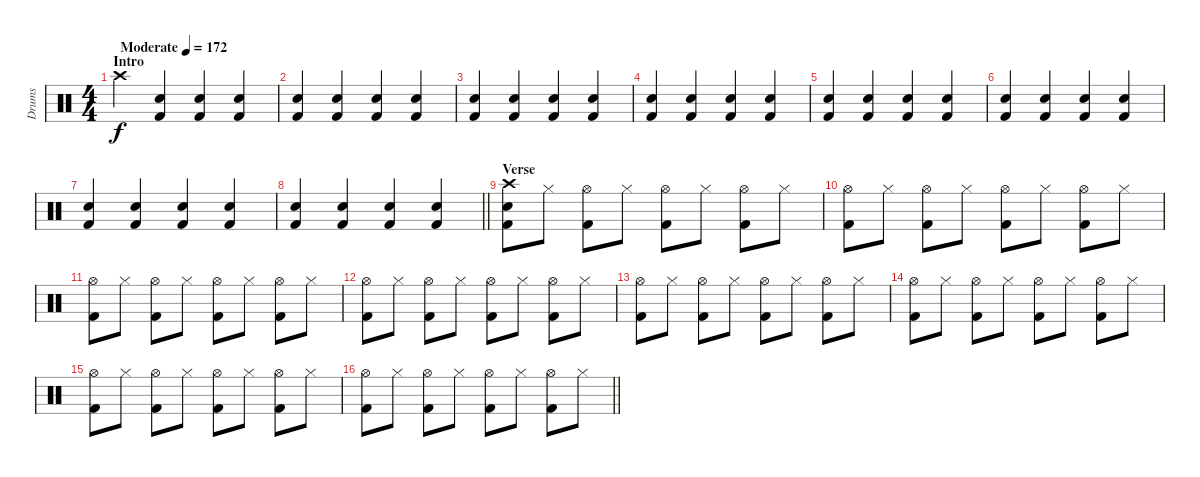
\track ("Drums" "Drums") {instrument percussion}
\staff {score}
\articulation defaults
\ts (4 4)
\section ("" "Intro")
\tempo (172 "Moderate")
\clef neutral
\ks c "Crash high (hit)".4{dy f}
("Electric Snare (hit)" "Kick (hit) 2").4 ("Electric Snare (hit)" "Kick (hit) 2").4 ("Electric Snare (hit)" "Kick (hit) 2").4 |
("Electric Snare (hit)" "Kick (hit) 2").4 ("Electric Snare (hit)" "Kick (hit) 2").4 ("Electric Snare (hit)" "Kick (hit) 2").4 ("Electric Snare (hit)" "Kick (hit) 2").4 |
("Electric Snare (hit)" "Kick (hit) 2").4 ("Electric Snare (hit)" "Kick (hit) 2").4 ("Electric Snare (hit)" "Kick (hit) 2").4 ("Electric Snare (hit)" "Kick (hit) 2").4 |
("Electric Snare (hit)" "Kick (hit) 2").4 ("Electric Snare (hit)" "Kick (hit) 2").4 ("Electric Snare (hit)" "Kick (hit) 2").4 ("Electric Snare (hit)" "Kick (hit) 2").4 |
("Electric Snare (hit)" "Kick (hit) 2").4 ("Electric Snare (hit)" "Kick (hit) 2").4 ("Electric Snare (hit)" "Kick (hit) 2").4 ("Electric Snare (hit)" "Kick (hit) 2").4 |
("Electric Snare (hit)" "Kick (hit) 2").4 ("Electric Snare (hit)" "Kick (hit) 2").4 ("Electric Snare (hit)" "Kick (hit) 2").4 ("Electric Snare (hit)" "Kick (hit) 2").4 |
("Electric Snare (hit)" "Kick (hit) 2").4 ("Electric Snare (hit)" "Kick (hit) 2").4 ("Electric Snare (hit)" "Kick (hit) 2").4 ("Electric Snare (hit)" "Kick (hit) 2").4 |
\barLineRight lightlight
("Electric Snare (hit)" "Kick (hit) 2").4 ("Electric Snare (hit)" "Kick (hit) 2").4 ("Electric Snare (hit)" "Kick (hit) 2").4 ("Electric Snare (hit)" "Kick (hit) 2").4 |
\section ("" "Verse")
("Kick (hit) 2" "Electric Snare (hit)" "Crash high (hit)").8 "Hi-Hat (closed)".8 ("Hi-Hat (open)" "Kick (hit) 2").8 "Hi-Hat (closed)".8 ("Hi-Hat (open)" "Kick (hit) 2").8 "Hi-Hat (closed)".8 ("Hi-Hat (open)" "Kick (hit) 2").8 "Hi-Hat (closed)".8 |
("Kick (hit) 2" "Hi-Hat (open)").8 "Hi-Hat (closed)".8 ("Hi-Hat (open)" "Kick (hit) 2").8 "Hi-Hat (closed)".8 ("Hi-Hat (open)" "Kick (hit) 2").8 "Hi-Hat (closed)".8 ("Hi-Hat (open)" "Kick (hit) 2").8 "Hi-Hat (closed)".8 |
("Kick (hit) 2" "Hi-Hat (open)").8 "Hi-Hat (closed)".8 ("Hi-Hat (open)" "Kick (hit) 2").8 "Hi-Hat (closed)".8 ("Hi-Hat (open)" "Kick (hit) 2").8 "Hi-Hat (closed)".8 ("Hi-Hat (open)" "Kick (hit) 2").8 "Hi-Hat (closed)".8 |
("Kick (hit) 2" "Hi-Hat (open)").8 "Hi-Hat (closed)".8 ("Hi-Hat (open)" "Kick (hit) 2").8 "Hi-Hat (closed)".8 ("Hi-Hat (open)" "Kick (hit) 2").8 "Hi-Hat (closed)".8 ("Hi-Hat (open)" "Kick (hit) 2").8 "Hi-Hat (closed)".8 |
("Kick (hit) 2" "Hi-Hat (open)").8 "Hi-Hat (closed)".8 ("Hi-Hat (open)" "Kick (hit) 2").8 "Hi-Hat (closed)".8 ("Hi-Hat (open)" "Kick (hit) 2").8 "Hi-Hat (closed)".8 ("Hi-Hat (open)" "Kick (hit) 2").8 "Hi-Hat (closed)".8 |
("Kick (hit) 2" "Hi-Hat (open)").8 "Hi-Hat (closed)".8 ("Hi-Hat (open)" "Kick (hit) 2").8 "Hi-Hat (closed)".8 ("Hi-Hat (open)" "Kick (hit) 2").8 "Hi-Hat (closed)".8 ("Hi-Hat (open)" "Kick (hit) 2").8 "Hi-Hat (closed)".8 |
("Kick (hit) 2" "Hi-Hat (open)").8 "Hi-Hat (closed)".8 ("Hi-Hat (open)" "Kick (hit) 2").8 "Hi-Hat (closed)".8 ("Hi-Hat (open)" "Kick (hit) 2").8 "Hi-Hat (closed)".8 ("Hi-Hat (open)" "Kick (hit) 2").8 "Hi-Hat (closed)".8 |
\barLineRight lightlight
("Kick (hit) 2" "Hi-Hat (open)").8 "Hi-Hat (closed)".8 ("Hi-Hat (open)" "Kick (hit) 2").8 "Hi-Hat (closed)".8 ("Hi-Hat (open)" "Kick (hit) 2").8 "Hi-Hat (closed)".8 ("Hi-Hat (open)" "Kick (hit) 2").8 "Hi-Hat (closed)".8
